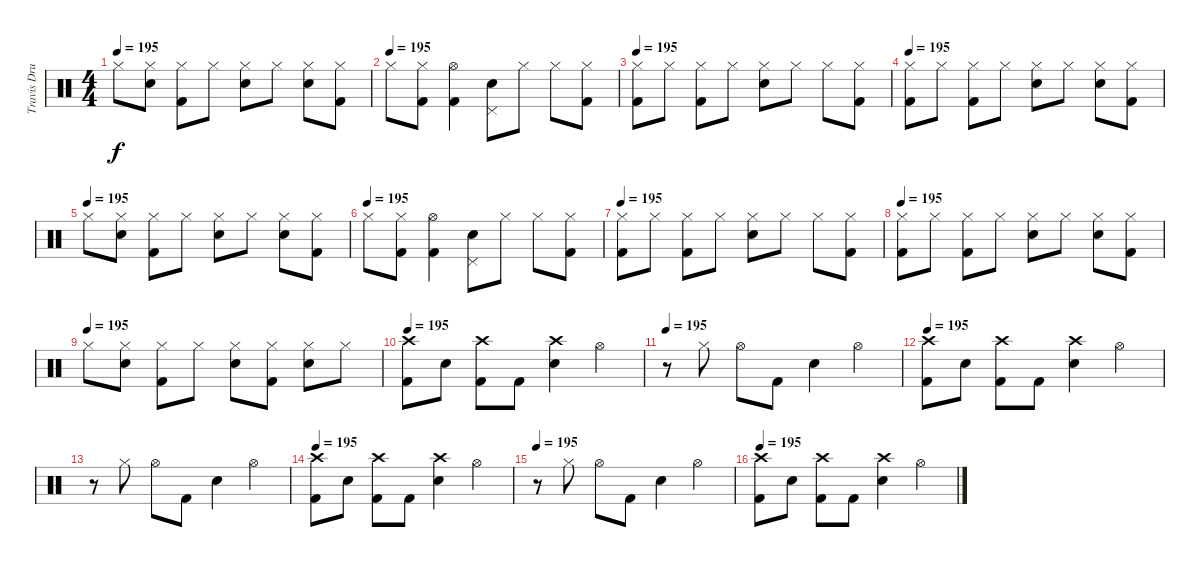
\track ("Travis Drums" "Travis Dru") {instrument percussion}
\staff {score}
\articulation defaults
\ts (4 4)
\tempo 195
\clef neutral
\ks c "Hi-Hat (closed)".8{dy f}
("Hi-Hat (closed)" "Electric Snare (hit)").8 ("Hi-Hat (closed)" "Kick (hit) 2").8 "Hi-Hat (closed)".8 ("Hi-Hat (closed)" "Electric Snare (hit)").8 "Hi-Hat (closed)".8 ("Hi-Hat (closed)" "Electric Snare (hit)").8 ("Hi-Hat (closed)" "Kick (hit) 2").8 |
\tempo (195)
"Hi-Hat (closed)".8 ("Hi-Hat (closed)" "Kick (hit) 2").8 ("Hi-Hat (open)" "Kick (hit) 2").4 ("Pedal Hi-Hat (hit)" "Electric Snare (hit)").8 "Hi-Hat (closed)".8 "Hi-Hat (closed)".8 ("Hi-Hat (closed)" "Kick (hit) 2").8 |
\tempo 195
("Hi-Hat (closed)" "Kick (hit) 2").8 "Hi-Hat (closed)".8 ("Hi-Hat (closed)" "Kick (hit) 2").8 "Hi-Hat (closed)".8 ("Hi-Hat (closed)" "Electric Snare (hit)").8 "Hi-Hat (closed)".8 "Hi-Hat (closed)".8 ("Hi-Hat (closed)" "Kick (hit) 2").8 |
\tempo 195
("Hi-Hat (closed)" "Kick (hit) 2").8 "Hi-Hat (closed)".8 ("Hi-Hat (closed)" "Kick (hit) 2").8 "Hi-Hat (closed)".8 ("Hi-Hat (closed)" "Electric Snare (hit)").8 "Hi-Hat (closed)".8 ("Hi-Hat (closed)" "Electric Snare (hit)").8 ("Hi-Hat (closed)" "Kick (hit) 2").8 |
\tempo (195)
"Hi-Hat (closed)".8 ("Hi-Hat (closed)" "Electric Snare (hit)").8 ("Hi-Hat (closed)" "Kick (hit) 2").8 "Hi-Hat (closed)".8 ("Hi-Hat (closed)" "Electric Snare (hit)").8 "Hi-Hat (closed)".8 ("Hi-Hat (closed)" "Electric Snare (hit)").8 ("Hi-Hat (closed)" "Kick (hit) 2").8 |
\tempo (195)
"Hi-Hat (closed)".8 ("Hi-Hat (closed)" "Kick (hit) 2").8 ("Hi-Hat (open)" "Kick (hit) 2").4 ("Pedal Hi-Hat (hit)" "Electric Snare (hit)").8 "Hi-Hat (closed)".8 "Hi-Hat (closed)".8 ("Hi-Hat (closed)" "Kick (hit) 2").8 |
\tempo 195
("Hi-Hat (closed)" "Kick (hit) 2").8 "Hi-Hat (closed)".8 ("Hi-Hat (closed)" "Kick (hit) 2").8 "Hi-Hat (closed)".8 ("Hi-Hat (closed)" "Electric Snare (hit)").8 "Hi-Hat (closed)".8 "Hi-Hat (closed)".8 ("Hi-Hat (closed)" "Kick (hit) 2").8 |
\tempo 195
("Hi-Hat (closed)" "Kick (hit) 2").8 "Hi-Hat (closed)".8 ("Hi-Hat (closed)" "Kick (hit) 2").8 "Hi-Hat (closed)".8 ("Hi-Hat (closed)" "Electric Snare (hit)").8 "Hi-Hat (closed)".8 ("Hi-Hat (closed)" "Electric Snare (hit)").8 ("Hi-Hat (closed)" "Kick (hit) 2").8 |
\tempo (195)
"Hi-Hat (closed)".8 ("Hi-Hat (closed)" "Electric Snare (hit)").8 ("Hi-Hat (closed)" "Kick (hit) 2").8 "Hi-Hat (closed)".8 ("Hi-Hat (closed)" "Electric Snare (hit)").8 ("Hi-Hat (closed)" "Kick (hit) 2").8 ("Hi-Hat (closed)" "Electric Snare (hit)").8 "Hi-Hat (closed)".8 |
\tempo 195
("Crash high (hit)" "Kick (hit) 2").8 "Electric Snare (hit)".8 ("Crash high (hit)" "Kick (hit) 2").8 "Kick (hit) 2".8 ("Crash high (hit)" "Electric Snare (hit)").4 "Hi-Hat (open)".4 |
\tempo 195
r.8 "Hi-Hat (closed)".8 "Hi-Hat (open)".8 "Kick (hit) 2".8 "Electric Snare (hit)".4 "Hi-Hat (open)".4 |
\tempo 195
("Crash high (hit)" "Kick (hit) 2").8 "Electric Snare (hit)".8 ("Crash high (hit)" "Kick (hit) 2").8 "Kick (hit) 2".8 ("Crash high (hit)" "Electric Snare (hit)").4 "Hi-Hat (open)".4 |
r.8 "Hi-Hat (closed)".8 "Hi-Hat (open)".8 "Kick (hit) 2".8 "Electric Snare (hit)".4 "Hi-Hat (open)".4 |
\tempo 195
("Crash high (hit)" "Kick (hit) 2").8 "Electric Snare (hit)".8 ("Crash high (hit)" "Kick (hit) 2").8 "Kick (hit) 2".8 ("Crash high (hit)" "Electric Snare (hit)").4 "Hi-Hat (open)".4 |
\tempo 195
r.8 "Hi-Hat (closed)".8 "Hi-Hat (open)".8 "Kick (hit) 2".8 "Electric Snare (hit)".4 "Hi-Hat (open)".4 |
\tempo 195
("Crash high (hit)" "Kick (hit) 2").8 "Electric Snare (hit)".8 ("Crash high (hit)" "Kick (hit) 2").8 "Kick (hit) 2".8 ("Crash high (hit)" "Electric Snare (hit)").4 "Hi-Hat (open)".4
